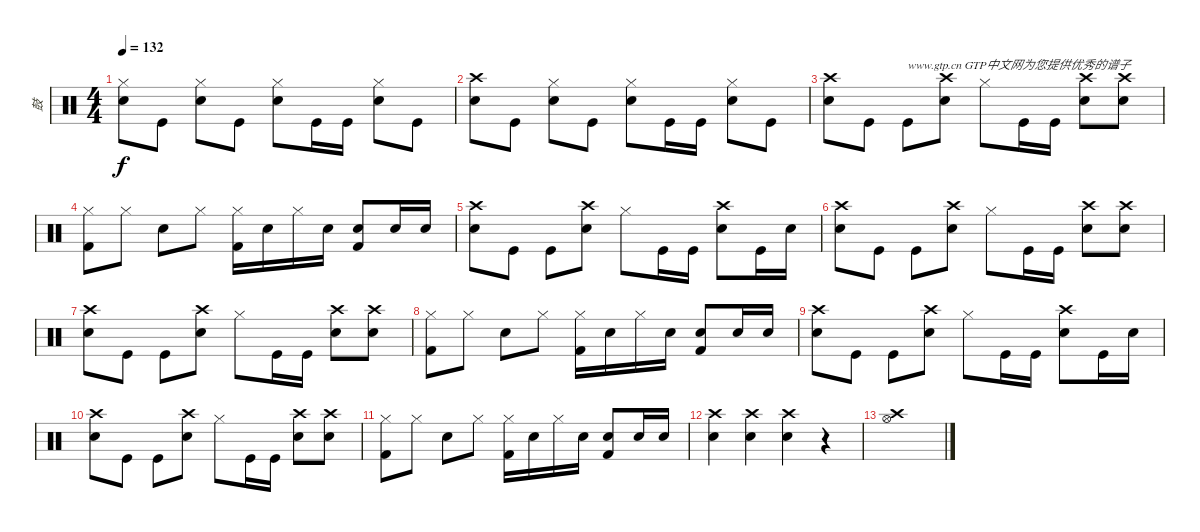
\track ("鼓" "鼓") {instrument percussion}
\staff {score}
\articulation defaults
\ts (4 4)
\tempo 132
\clef neutral
\ks c
("Hi-Hat (closed)" "Electric Snare (hit)").8{dy f} "Kick (hit)".8 ("Hi-Hat (closed)" "Electric Snare (hit)").8 "Kick (hit)".8 ("Hi-Hat (closed)" "Electric Snare (hit)").8 "Kick (hit)".16 "Kick (hit)".16 ("Hi-Hat (closed)" "Electric Snare (hit)").8 "Kick (hit)".8 |
("Crash high (hit)" "Electric Snare (hit)").8 "Kick (hit)".8 ("Hi-Hat (closed)" "Electric Snare (hit)").8 "Kick (hit)".8 ("Hi-Hat (closed)" "Electric Snare (hit)").8 "Kick (hit)".16 "Kick (hit)".16 ("Hi-Hat (closed)" "Electric Snare (hit)").8 "Kick (hit)".8 |
("Crash high (hit)" "Electric Snare (hit)").8 "Kick (hit)".8 "Kick (hit)".8{txt "www.gtp.cn GTP中文网为您提供优秀的谱子"} ("Crash high (hit)" "Electric Snare (hit)").8 "Hi-Hat (closed)".8 "Kick (hit)".16 "Kick (hit)".16 ("Crash high (hit)" "Electric Snare (hit)").8 ("Crash high (hit)" "Electric Snare (hit)").8 |
("Hi-Hat (closed)" "Kick (hit) 2").8 "Hi-Hat (closed)".8 "Snare (hit) 2".8 "Hi-Hat (closed)".8 ("Hi-Hat (closed)" "Kick (hit) 2").16 "Snare (hit) 2".16 "Hi-Hat (closed)".16 "Snare (hit) 2".16 ("Snare (hit) 2" "Kick (hit) 2").8 "Snare (hit) 2".16 "Snare (hit) 2".16 |
("Crash high (hit)" "Electric Snare (hit)").8 "Kick (hit)".8 "Kick (hit)".8 ("Crash high (hit)" "Electric Snare (hit)").8 "Hi-Hat (closed)".8 "Kick (hit)".16 "Kick (hit)".16 ("Crash high (hit)" "Electric Snare (hit)").8 "Kick (hit)".16 "Electric Snare (hit)".16 |
("Crash high (hit)" "Electric Snare (hit)").8 "Kick (hit)".8 "Kick (hit)".8 ("Crash high (hit)" "Electric Snare (hit)").8 "Hi-Hat (closed)".8 "Kick (hit)".16 "Kick (hit)".16 ("Crash high (hit)" "Electric Snare (hit)").8 ("Crash high (hit)" "Electric Snare (hit)").8 |
("Crash high (hit)" "Electric Snare (hit)").8 "Kick (hit)".8 "Kick (hit)".8 ("Crash high (hit)" "Electric Snare (hit)").8 "Hi-Hat (closed)".8 "Kick (hit)".16 "Kick (hit)".16 ("Crash high (hit)" "Electric Snare (hit)").8 ("Crash high (hit)" "Electric Snare (hit)").8 |
("Hi-Hat (closed)" "Kick (hit) 2").8 "Hi-Hat (closed)".8 "Snare (hit) 2".8 "Hi-Hat (closed)".8 ("Hi-Hat (closed)" "Kick (hit) 2").16 "Snare (hit) 2".16 "Hi-Hat (closed)".16 "Snare (hit) 2".16 ("Snare (hit) 2" "Kick (hit) 2").8 "Snare (hit) 2".16 "Snare (hit) 2".16 |
("Crash high (hit)" "Electric Snare (hit)").8 "Kick (hit)".8 "Kick (hit)".8 ("Crash high (hit)" "Electric Snare (hit)").8 "Hi-Hat (closed)".8 "Kick (hit)".16 "Kick (hit)".16 ("Crash high (hit)" "Electric Snare (hit)").8 "Kick (hit)".16 "Electric Snare (hit)".16 |
("Crash high (hit)" "Electric Snare (hit)").8 "Kick (hit)".8 "Kick (hit)".8 ("Crash high (hit)" "Electric Snare (hit)").8 "Hi-Hat (closed)".8 "Kick (hit)".16 "Kick (hit)".16 ("Crash high (hit)" "Electric Snare (hit)").8 ("Crash high (hit)" "Electric Snare (hit)").8 |
("Hi-Hat (closed)" "Kick (hit) 2").8 "Hi-Hat (closed)".8 "Snare (hit) 2".8 "Hi-Hat (closed)".8 ("Hi-Hat (closed)" "Kick (hit) 2").16 "Snare (hit) 2".16 "Hi-Hat (closed)".16 "Snare (hit) 2".16 ("Snare (hit) 2" "Kick (hit) 2").8 "Snare (hit) 2".16 "Snare (hit) 2".16 |
("Crash high (hit)" "Electric Snare (hit)").4 ("Crash high (hit)" "Electric Snare (hit)").4 ("Crash high (hit)" "Electric Snare (hit)").4 r.4 |
("Crash high (hit)" "Hi-Hat (open)").1
